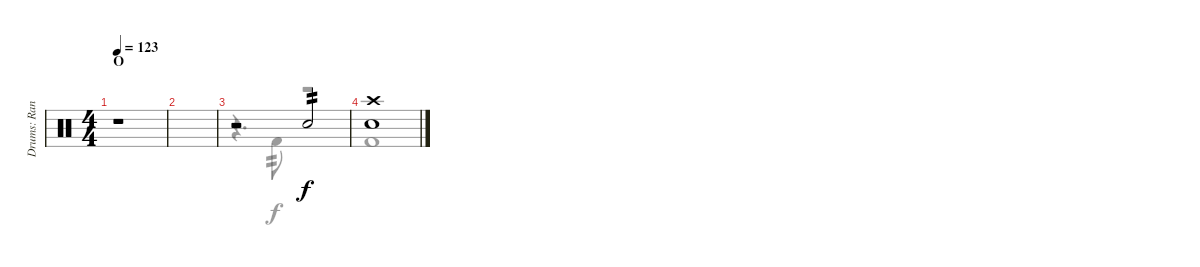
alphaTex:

\track ("Drums: Randy" "Drums: Ran") {instrument percussion}
\staff {score}
\articulation defaults
\voice
\ts (4 4)
\section ("" "O")
\tempo 123
\clef neutral
\ks c
r.1{dy f} |
|
r.2 "Snare (hit) 2".2{tp 2} |
("Crash high (hit)" "Snare (hit) 2").1
\voice
\clef neutral
\ottava regular
\simile none
\ks c
|
|
r.4{d} "Kick (hit) 2".8{tp 2} r.2 |
"Kick (hit) 2".1
